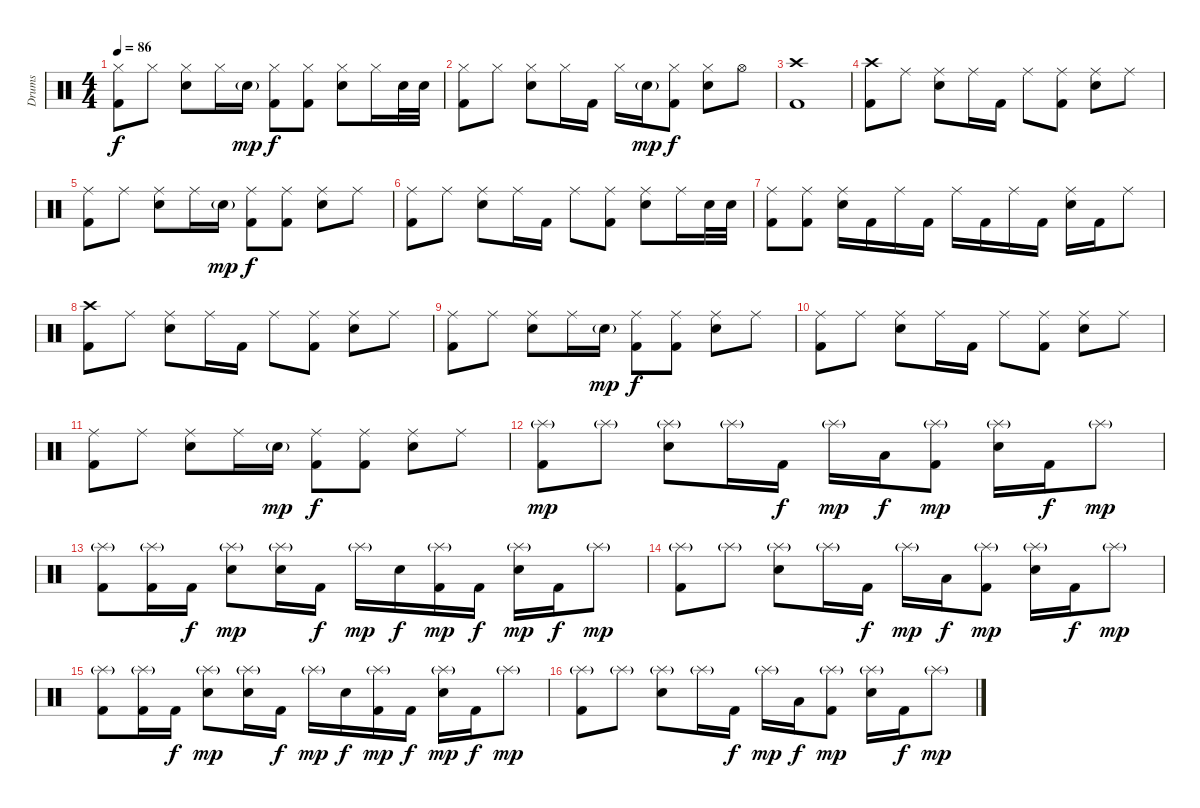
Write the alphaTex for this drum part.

\track ("Drums" "Drums") {instrument percussion}
\staff {score}
\articulation defaults
\ts (4 4)
\tempo 86
\clef neutral
\ks c
("Hi-Hat (closed)" "Kick (hit) 2").8{dy f} "Hi-Hat (closed)".8 ("Hi-Hat (closed)" "Snare (hit) 2").8 "Hi-Hat (closed)".16 "Snare (hit) 2"{g}.16{dy mp} ("Hi-Hat (closed)" "Kick (hit) 2").8{dy f} ("Hi-Hat (closed)" "Kick (hit) 2").8 ("Hi-Hat (closed)" "Snare (hit) 2").8 "Hi-Hat (closed)".16 "Snare (hit) 2".32 "Snare (hit) 2".32 |
("Hi-Hat (closed)" "Kick (hit) 2").8 "Hi-Hat (closed)".8 ("Hi-Hat (closed)" "Snare (hit) 2").8 "Hi-Hat (closed)".16 "Kick (hit) 2".16 "Hi-Hat (closed)".16 "Snare (hit) 2"{g}.16{dy mp} ("Hi-Hat (closed)" "Kick (hit) 2").8{dy f} ("Hi-Hat (closed)" "Snare (hit) 2").8 "Hi-Hat (open)".8 |
("Crash high (hit)" "Kick (hit) 2").1 |
("Crash high (hit)" "Kick (hit) 2").8 "Ride (middle)".8 ("Ride (middle)" "Snare (hit) 2").8 "Ride (middle)".16 "Kick (hit) 2".16 "Ride (middle)".8 ("Ride (middle)" "Kick (hit) 2").8 ("Ride (middle)" "Snare (hit) 2").8 "Ride (middle)".8 |
("Ride (middle)" "Kick (hit) 2").8 "Ride (middle)".8 ("Ride (middle)" "Snare (hit) 2").8 "Ride (middle)".16 "Snare (hit) 2"{g}.16{dy mp} ("Ride (middle)" "Kick (hit) 2").8{dy f} ("Ride (middle)" "Kick (hit) 2").8 ("Ride (middle)" "Snare (hit) 2").8 "Ride (middle)".8 |
("Ride (middle)" "Kick (hit) 2").8 "Ride (middle)".8 ("Ride (middle)" "Snare (hit) 2").8 "Ride (middle)".16 "Kick (hit) 2".16 "Ride (middle)".8 ("Ride (middle)" "Kick (hit) 2").8 ("Ride (middle)" "Snare (hit) 2").8 "Ride (middle)".16 "Snare (hit) 2".32 "Snare (hit) 2".32 |
("Ride (middle)" "Kick (hit) 2").8 ("Ride (middle)" "Kick (hit) 2").8 ("Ride (middle)" "Snare (hit) 2").16 "Kick (hit) 2".16 "Ride (middle)".16 "Kick (hit) 2".16 "Ride (middle)".16 "Kick (hit) 2".16 "Ride (middle)".16 "Kick (hit) 2".16 ("Ride (middle)" "Snare (hit) 2").16 "Kick (hit) 2".16 "Ride (middle)".8 |
("Crash high (hit)" "Kick (hit) 2").8 "Ride (middle)".8 ("Ride (middle)" "Snare (hit) 2").8 "Ride (middle)".16 "Kick (hit) 2".16 "Ride (middle)".8 ("Ride (middle)" "Kick (hit) 2").8 ("Ride (middle)" "Snare (hit) 2").8 "Ride (middle)".8 |
("Ride (middle)" "Kick (hit) 2").8 "Ride (middle)".8 ("Ride (middle)" "Snare (hit) 2").8 "Ride (middle)".16 "Snare (hit) 2"{g}.16{dy mp} ("Ride (middle)" "Kick (hit) 2").8{dy f} ("Ride (middle)" "Kick (hit) 2").8 ("Ride (middle)" "Snare (hit) 2").8 "Ride (middle)".8 |
("Ride (middle)" "Kick (hit) 2").8 "Ride (middle)".8 ("Ride (middle)" "Snare (hit) 2").8 "Ride (middle)".16 "Kick (hit) 2".16 "Ride (middle)".8 ("Ride (middle)" "Kick (hit) 2").8 ("Ride (middle)" "Snare (hit) 2").8 "Ride (middle)".8 |
("Ride (middle)" "Kick (hit) 2").8 "Ride (middle)".8 ("Ride (middle)" "Snare (hit) 2").8 "Ride (middle)".16 "Snare (hit) 2"{g}.16{dy mp} ("Ride (middle)" "Kick (hit) 2").8{dy f} ("Ride (middle)" "Kick (hit) 2").8 ("Ride (middle)" "Snare (hit) 2").8 "Ride (middle)".8 |
("Splash (hit)"{g} "Kick (hit) 2").8{dy mp} "Splash (hit)"{g}.8 ("Splash (hit)"{g} "Snare (hit) 2").8 "Splash (hit)"{g}.16 "Kick (hit) 2".16{dy f} "Splash (hit)"{g}.16{dy mp} "Low Tom (hit)".16{dy f} ("Splash (hit)"{g} "Kick (hit) 2").8{dy mp} ("Splash (hit)"{g} "Snare (hit) 2").16 "Kick (hit) 2".16{dy f} "Splash (hit)"{g}.8{dy mp} |
("Splash (hit)"{g} "Kick (hit) 2").8 ("Splash (hit)"{g} "Kick (hit) 2").16 "Kick (hit) 2".16{dy f} ("Splash (hit)"{g} "Snare (hit) 2").8{dy mp} ("Splash (hit)"{g} "Snare (hit) 2").16 "Kick (hit) 2".16{dy f} "Splash (hit)"{g}.16{dy mp} "Snare (hit) 2".16{dy f} ("Splash (hit)"{g} "Kick (hit) 2").16{dy mp} "Kick (hit) 2".16{dy f} ("Splash (hit)"{g} "Snare (hit) 2").16{dy mp} "Kick (hit) 2".16{dy f} "Splash (hit)"{g}.8{dy mp} |
("Splash (hit)"{g} "Kick (hit) 2").8 "Splash (hit)"{g}.8 ("Splash (hit)"{g} "Snare (hit) 2").8 "Splash (hit)"{g}.16 "Kick (hit) 2".16{dy f} "Splash (hit)"{g}.16{dy mp} "Low Tom (hit)".16{dy f} ("Splash (hit)"{g} "Kick (hit) 2").8{dy mp} ("Splash (hit)"{g} "Snare (hit) 2").16 "Kick (hit) 2".16{dy f} "Splash (hit)"{g}.8{dy mp} |
("Splash (hit)"{g} "Kick (hit) 2").8 ("Splash (hit)"{g} "Kick (hit) 2").16 "Kick (hit) 2".16{dy f} ("Splash (hit)"{g} "Snare (hit) 2").8{dy mp} ("Splash (hit)"{g} "Snare (hit) 2").16 "Kick (hit) 2".16{dy f} "Splash (hit)"{g}.16{dy mp} "Snare (hit) 2".16{dy f} ("Splash (hit)"{g} "Kick (hit) 2").16{dy mp} "Kick (hit) 2".16{dy f} ("Splash (hit)"{g} "Snare (hit) 2").16{dy mp} "Kick (hit) 2".16{dy f} "Splash (hit)"{g}.8{dy mp} |
("Splash (hit)"{g} "Kick (hit) 2").8 "Splash (hit)"{g}.8 ("Splash (hit)"{g} "Snare (hit) 2").8 "Splash (hit)"{g}.16 "Kick (hit) 2".16{dy f} "Splash (hit)"{g}.16{dy mp} "Low Tom (hit)".16{dy f} ("Splash (hit)"{g} "Kick (hit) 2").8{dy mp} ("Splash (hit)"{g} "Snare (hit) 2").16 "Kick (hit) 2".16{dy f} "Splash (hit)"{g}.8{dy mp}
